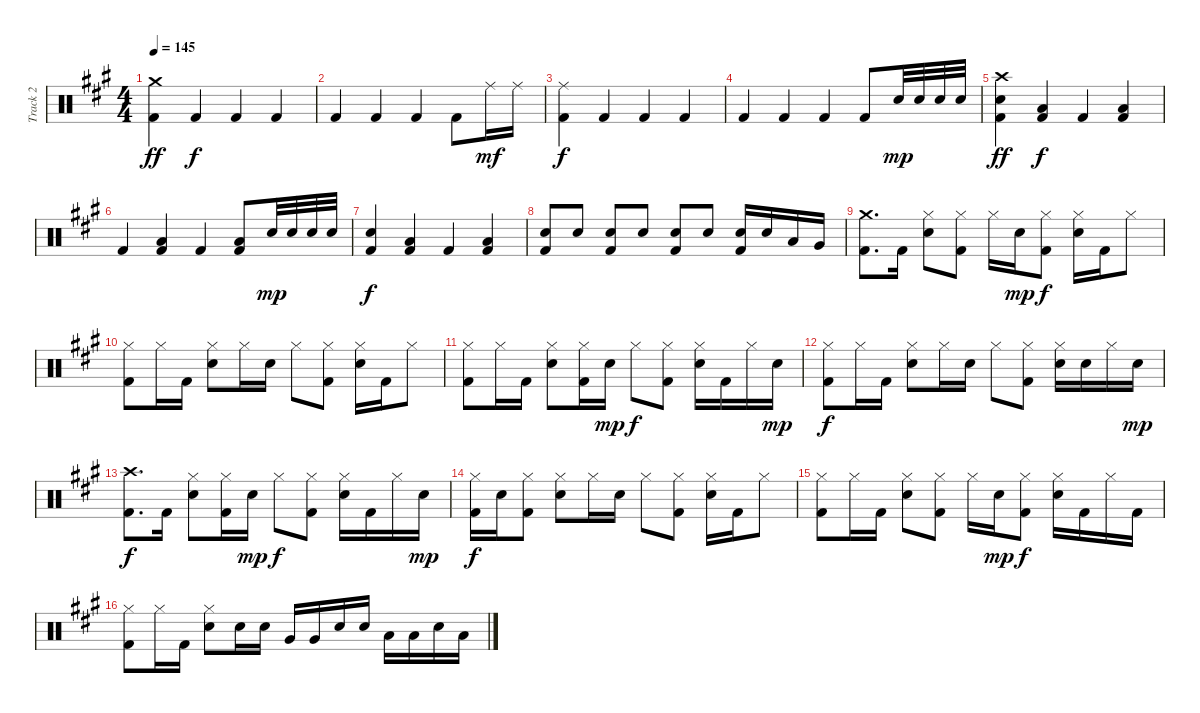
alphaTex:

\track ("Track 2" "Track 2") {instrument percussion}
\staff {score}
\articulation defaults
\ts (4 4)
\tempo 145
\clef neutral
\ks a
("Crash medium (hit)" "Kick (hit) 2").4{dy ff} "Kick (hit) 2".4{dy f} "Kick (hit) 2".4 "Kick (hit) 2".4 |
"Kick (hit) 2".4 "Kick (hit) 2".4 "Kick (hit) 2".4 "Kick (hit) 2".8 "Ride (middle)".16{dy mf} "Ride (middle)".16 |
("Ride (middle)" "Kick (hit) 2").4{dy f} "Kick (hit) 2".4 "Kick (hit) 2".4 "Kick (hit) 2".4 |
"Kick (hit) 2".4 "Kick (hit) 2".4 "Kick (hit) 2".4 "Kick (hit) 2".8 "Snare (hit) 2".32{dy mp} "Snare (hit) 2".32 "Snare (hit) 2".32 "Snare (hit) 2".32 |
("Crash high (hit)" "Snare (hit) 2" "Kick (hit) 2").4{dy ff} ("Low Floor Tom (hit)" "Kick (hit) 2").4{dy f} "Kick (hit) 2".4 ("Low Floor Tom (hit)" "Kick (hit) 2").4 |
"Kick (hit) 2".4 ("Low Floor Tom (hit)" "Kick (hit) 2").4 "Kick (hit) 2".4 ("Low Floor Tom (hit)" "Kick (hit) 2").8 "Snare (hit) 2".32{dy mp} "Snare (hit) 2".32 "Snare (hit) 2".32 "Snare (hit) 2".32 |
("Snare (hit) 2" "Kick (hit) 2").4{dy f} ("Low Floor Tom (hit)" "Kick (hit) 2").4 "Kick (hit) 2".4 ("Low Floor Tom (hit)" "Kick (hit) 2").4 |
("Snare (hit) 2" "Kick (hit) 2").8 "Snare (hit) 2".8 ("Snare (hit) 2" "Kick (hit) 2").8 "Snare (hit) 2".8 ("Snare (hit) 2" "Kick (hit) 2").8 "Snare (hit) 2".8 ("Snare (hit) 2" "Kick (hit) 2").16 "Snare (hit) 2".16 "Low Tom (hit)".16 "Very Low Tom (hit)".16 |
("Crash medium (hit)" "Kick (hit) 2").8{d} "Kick (hit) 2".16 ("Hi-Hat (closed)" "Snare (hit) 2").8 ("Hi-Hat (closed)" "Kick (hit) 2").8 "Hi-Hat (closed)".16 "Snare (hit) 2".16{dy mp} ("Hi-Hat (closed)" "Kick (hit) 2").8{dy f} ("Hi-Hat (closed)" "Snare (hit) 2").16 "Kick (hit) 2".16 "Hi-Hat (closed)".8 |
("Hi-Hat (closed)" "Kick (hit) 2").8 "Hi-Hat (closed)".16 "Kick (hit) 2".16 ("Hi-Hat (closed)" "Snare (hit) 2").8 "Hi-Hat (closed)".16 "Snare (hit) 2".16 "Hi-Hat (closed)".8 ("Hi-Hat (closed)" "Kick (hit) 2").8 ("Hi-Hat (closed)" "Snare (hit) 2").16 "Kick (hit) 2".16 "Hi-Hat (closed)".8 |
("Hi-Hat (closed)" "Kick (hit) 2").8 "Hi-Hat (closed)".16 "Kick (hit) 2".16 ("Hi-Hat (closed)" "Snare (hit) 2").8 ("Hi-Hat (closed)" "Kick (hit) 2").16 "Snare (hit) 2".16{dy mp} "Hi-Hat (closed)".8{dy f} ("Hi-Hat (closed)" "Kick (hit) 2").8 ("Hi-Hat (closed)" "Snare (hit) 2").16 "Kick (hit) 2".16 "Hi-Hat (closed)".16 "Snare (hit) 2".16{dy mp} |
("Hi-Hat (closed)" "Kick (hit) 2").8{dy f} "Hi-Hat (closed)".16 "Kick (hit) 2".16 ("Hi-Hat (closed)" "Snare (hit) 2").8 "Hi-Hat (closed)".16 "Snare (hit) 2".16 "Hi-Hat (closed)".8 ("Hi-Hat (closed)" "Kick (hit) 2").8 ("Hi-Hat (closed)" "Snare (hit) 2").16 "Snare (hit) 2".16 "Hi-Hat (closed)".16 "Snare (hit) 2".16{dy mp} |
("Crash high (hit)" "Kick (hit) 2").8{d dy f} "Kick (hit) 2".16 ("Hi-Hat (closed)" "Snare (hit) 2").8 ("Hi-Hat (closed)" "Kick (hit) 2").16 "Snare (hit) 2".16{dy mp} "Hi-Hat (closed)".8{dy f} ("Hi-Hat (closed)" "Kick (hit) 2").8 ("Hi-Hat (closed)" "Snare (hit) 2").16 "Kick (hit) 2".16 "Hi-Hat (closed)".16 "Snare (hit) 2".16{dy mp} |
("Hi-Hat (closed)" "Kick (hit) 2").16{dy f} "Snare (hit) 2".16 ("Hi-Hat (closed)" "Kick (hit) 2").8 ("Hi-Hat (closed)" "Snare (hit) 2").8 "Hi-Hat (closed)".16 "Snare (hit) 2".16 "Hi-Hat (closed)".8 ("Hi-Hat (closed)" "Kick (hit) 2").8 ("Hi-Hat (closed)" "Snare (hit) 2").16 "Kick (hit) 2".16 "Hi-Hat (closed)".8 |
("Hi-Hat (closed)" "Kick (hit) 2").8 "Hi-Hat (closed)".16 "Kick (hit) 2".16 ("Hi-Hat (closed)" "Snare (hit) 2").8 ("Hi-Hat (closed)" "Kick (hit) 2").8 "Hi-Hat (closed)".16 "Snare (hit) 2".16{dy mp} ("Hi-Hat (closed)" "Kick (hit) 2").8{dy f} ("Hi-Hat (closed)" "Snare (hit) 2").16 "Kick (hit) 2".16 "Hi-Hat (closed)".16 "Kick (hit) 2".16 |
("Hi-Hat (closed)" "Kick (hit) 2").8 "Hi-Hat (closed)".16 "Kick (hit) 2".16 ("Hi-Hat (closed)" "Snare (hit) 2").8 "Snare (hit) 2".16 "Snare (hit) 2".16 "Very Low Tom (hit)".16 "Very Low Tom (hit)".16 "Snare (hit) 2".16 "Snare (hit) 2".16 "Low Floor Tom (hit)".16 "Low Floor Tom (hit)".16 "Snare (hit) 2".16 "Low Floor Tom (hit)".16
